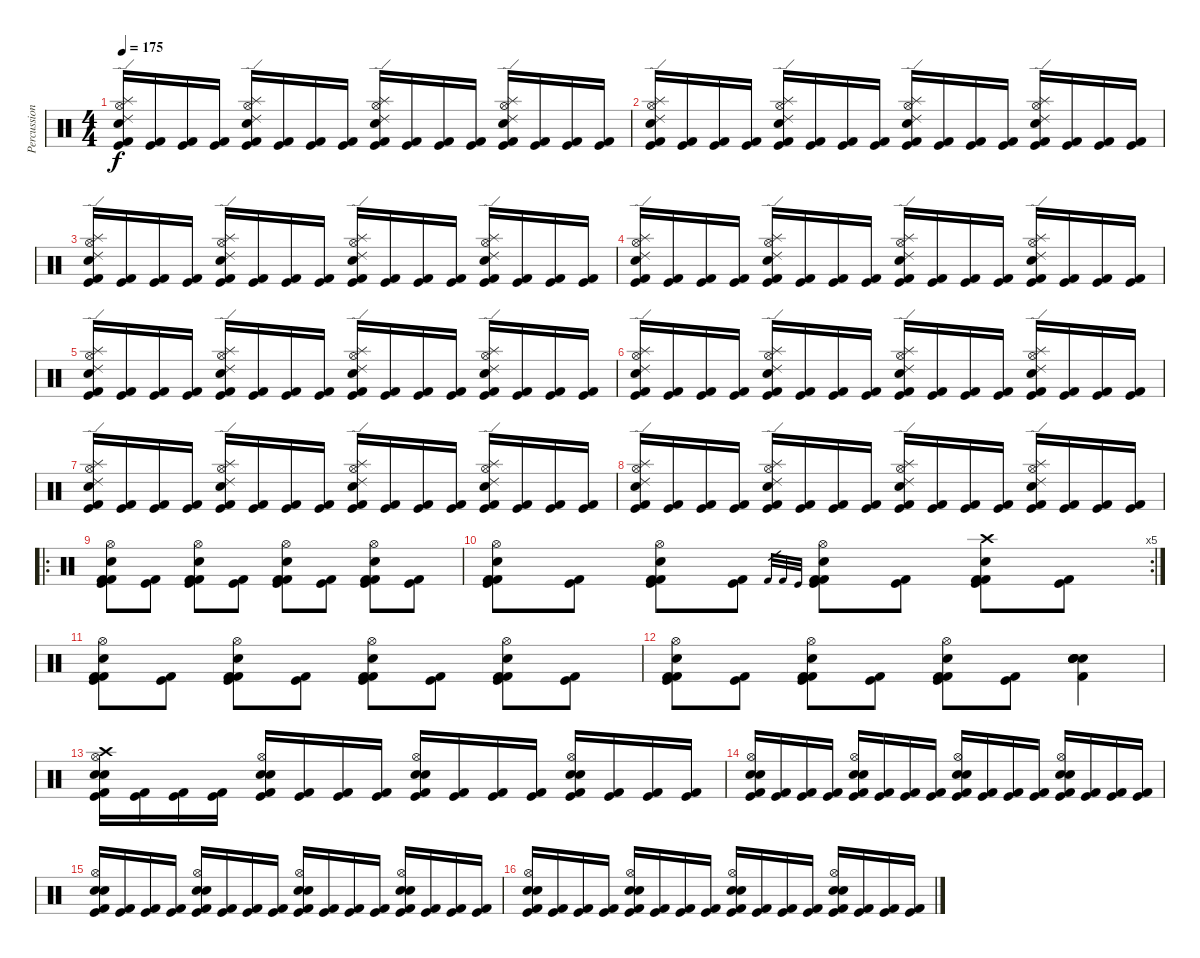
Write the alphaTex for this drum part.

\track ("Percussion" "Percussion") {instrument percussion}
\staff {score}
\articulation defaults
\ts (4 4)
\tempo 175
\clef neutral
\ks c
("Ride (edge) 2" "Splash (hit)" "Electric Snare (hit)" "Hi-Hat (open)" "Kick (hit) 2" "Kick (hit)").16{dy f} ("Kick (hit) 2" "Kick (hit)").16 ("Kick (hit) 2" "Kick (hit)").16 ("Kick (hit) 2" "Kick (hit)").16 ("Ride (edge) 2" "Splash (hit)" "Electric Snare (hit)" "Hi-Hat (open)" "Kick (hit) 2" "Kick (hit)").16 ("Kick (hit) 2" "Kick (hit)").16 ("Kick (hit) 2" "Kick (hit)").16 ("Kick (hit) 2" "Kick (hit)").16 ("Ride (edge) 2" "Splash (hit)" "Electric Snare (hit)" "Hi-Hat (open)" "Kick (hit) 2" "Kick (hit)").16 ("Kick (hit) 2" "Kick (hit)").16 ("Kick (hit) 2" "Kick (hit)").16 ("Kick (hit) 2" "Kick (hit)").16 ("Ride (edge) 2" "Splash (hit)" "Electric Snare (hit)" "Hi-Hat (open)" "Kick (hit) 2" "Kick (hit)").16 ("Kick (hit) 2" "Kick (hit)").16 ("Kick (hit) 2" "Kick (hit)").16 ("Kick (hit) 2" "Kick (hit)").16 |
("Ride (edge) 2" "Splash (hit)" "Electric Snare (hit)" "Hi-Hat (open)" "Kick (hit) 2" "Kick (hit)").16 ("Kick (hit) 2" "Kick (hit)").16 ("Kick (hit) 2" "Kick (hit)").16 ("Kick (hit) 2" "Kick (hit)").16 ("Ride (edge) 2" "Splash (hit)" "Electric Snare (hit)" "Hi-Hat (open)" "Kick (hit) 2" "Kick (hit)").16 ("Kick (hit) 2" "Kick (hit)").16 ("Kick (hit) 2" "Kick (hit)").16 ("Kick (hit) 2" "Kick (hit)").16 ("Ride (edge) 2" "Splash (hit)" "Electric Snare (hit)" "Hi-Hat (open)" "Kick (hit) 2" "Kick (hit)").16 ("Kick (hit) 2" "Kick (hit)").16 ("Kick (hit) 2" "Kick (hit)").16 ("Kick (hit) 2" "Kick (hit)").16 ("Ride (edge) 2" "Splash (hit)" "Electric Snare (hit)" "Hi-Hat (open)" "Kick (hit) 2" "Kick (hit)").16 ("Kick (hit) 2" "Kick (hit)").16 ("Kick (hit) 2" "Kick (hit)").16 ("Kick (hit) 2" "Kick (hit)").16 |
("Ride (edge) 2" "Splash (hit)" "Electric Snare (hit)" "Hi-Hat (open)" "Kick (hit) 2" "Kick (hit)").16 ("Kick (hit) 2" "Kick (hit)").16 ("Kick (hit) 2" "Kick (hit)").16 ("Kick (hit) 2" "Kick (hit)").16 ("Ride (edge) 2" "Splash (hit)" "Electric Snare (hit)" "Hi-Hat (open)" "Kick (hit) 2" "Kick (hit)").16 ("Kick (hit) 2" "Kick (hit)").16 ("Kick (hit) 2" "Kick (hit)").16 ("Kick (hit) 2" "Kick (hit)").16 ("Ride (edge) 2" "Splash (hit)" "Electric Snare (hit)" "Hi-Hat (open)" "Kick (hit) 2" "Kick (hit)").16 ("Kick (hit) 2" "Kick (hit)").16 ("Kick (hit) 2" "Kick (hit)").16 ("Kick (hit) 2" "Kick (hit)").16 ("Ride (edge) 2" "Splash (hit)" "Electric Snare (hit)" "Hi-Hat (open)" "Kick (hit) 2" "Kick (hit)").16 ("Kick (hit) 2" "Kick (hit)").16 ("Kick (hit) 2" "Kick (hit)").16 ("Kick (hit) 2" "Kick (hit)").16 |
("Ride (edge) 2" "Splash (hit)" "Electric Snare (hit)" "Hi-Hat (open)" "Kick (hit) 2" "Kick (hit)").16 ("Kick (hit) 2" "Kick (hit)").16 ("Kick (hit) 2" "Kick (hit)").16 ("Kick (hit) 2" "Kick (hit)").16 ("Ride (edge) 2" "Splash (hit)" "Electric Snare (hit)" "Hi-Hat (open)" "Kick (hit) 2" "Kick (hit)").16 ("Kick (hit) 2" "Kick (hit)").16 ("Kick (hit) 2" "Kick (hit)").16 ("Kick (hit) 2" "Kick (hit)").16 ("Ride (edge) 2" "Splash (hit)" "Electric Snare (hit)" "Hi-Hat (open)" "Kick (hit) 2" "Kick (hit)").16 ("Kick (hit) 2" "Kick (hit)").16 ("Kick (hit) 2" "Kick (hit)").16 ("Kick (hit) 2" "Kick (hit)").16 ("Ride (edge) 2" "Splash (hit)" "Electric Snare (hit)" "Hi-Hat (open)" "Kick (hit) 2" "Kick (hit)").16 ("Kick (hit) 2" "Kick (hit)").16 ("Kick (hit) 2" "Kick (hit)").16 ("Kick (hit) 2" "Kick (hit)").16 |
("Ride (edge) 2" "Splash (hit)" "Electric Snare (hit)" "Hi-Hat (open)" "Kick (hit) 2" "Kick (hit)").16 ("Kick (hit) 2" "Kick (hit)").16 ("Kick (hit) 2" "Kick (hit)").16 ("Kick (hit) 2" "Kick (hit)").16 ("Ride (edge) 2" "Splash (hit)" "Electric Snare (hit)" "Hi-Hat (open)" "Kick (hit) 2" "Kick (hit)").16 ("Kick (hit) 2" "Kick (hit)").16 ("Kick (hit) 2" "Kick (hit)").16 ("Kick (hit) 2" "Kick (hit)").16 ("Ride (edge) 2" "Splash (hit)" "Electric Snare (hit)" "Hi-Hat (open)" "Kick (hit) 2" "Kick (hit)").16 ("Kick (hit) 2" "Kick (hit)").16 ("Kick (hit) 2" "Kick (hit)").16 ("Kick (hit) 2" "Kick (hit)").16 ("Ride (edge) 2" "Splash (hit)" "Electric Snare (hit)" "Hi-Hat (open)" "Kick (hit) 2" "Kick (hit)").16 ("Kick (hit) 2" "Kick (hit)").16 ("Kick (hit) 2" "Kick (hit)").16 ("Kick (hit) 2" "Kick (hit)").16 |
("Ride (edge) 2" "Splash (hit)" "Electric Snare (hit)" "Hi-Hat (open)" "Kick (hit) 2" "Kick (hit)").16 ("Kick (hit) 2" "Kick (hit)").16 ("Kick (hit) 2" "Kick (hit)").16 ("Kick (hit) 2" "Kick (hit)").16 ("Ride (edge) 2" "Splash (hit)" "Electric Snare (hit)" "Hi-Hat (open)" "Kick (hit) 2" "Kick (hit)").16 ("Kick (hit) 2" "Kick (hit)").16 ("Kick (hit) 2" "Kick (hit)").16 ("Kick (hit) 2" "Kick (hit)").16 ("Ride (edge) 2" "Splash (hit)" "Electric Snare (hit)" "Hi-Hat (open)" "Kick (hit) 2" "Kick (hit)").16 ("Kick (hit) 2" "Kick (hit)").16 ("Kick (hit) 2" "Kick (hit)").16 ("Kick (hit) 2" "Kick (hit)").16 ("Ride (edge) 2" "Splash (hit)" "Electric Snare (hit)" "Hi-Hat (open)" "Kick (hit) 2" "Kick (hit)").16 ("Kick (hit) 2" "Kick (hit)").16 ("Kick (hit) 2" "Kick (hit)").16 ("Kick (hit) 2" "Kick (hit)").16 |
("Ride (edge) 2" "Splash (hit)" "Electric Snare (hit)" "Hi-Hat (open)" "Kick (hit) 2" "Kick (hit)").16 ("Kick (hit) 2" "Kick (hit)").16 ("Kick (hit) 2" "Kick (hit)").16 ("Kick (hit) 2" "Kick (hit)").16 ("Ride (edge) 2" "Splash (hit)" "Electric Snare (hit)" "Hi-Hat (open)" "Kick (hit) 2" "Kick (hit)").16 ("Kick (hit) 2" "Kick (hit)").16 ("Kick (hit) 2" "Kick (hit)").16 ("Kick (hit) 2" "Kick (hit)").16 ("Ride (edge) 2" "Splash (hit)" "Electric Snare (hit)" "Hi-Hat (open)" "Kick (hit) 2" "Kick (hit)").16 ("Kick (hit) 2" "Kick (hit)").16 ("Kick (hit) 2" "Kick (hit)").16 ("Kick (hit) 2" "Kick (hit)").16 ("Ride (edge) 2" "Splash (hit)" "Electric Snare (hit)" "Hi-Hat (open)" "Kick (hit) 2" "Kick (hit)").16 ("Kick (hit) 2" "Kick (hit)").16 ("Kick (hit) 2" "Kick (hit)").16 ("Kick (hit) 2" "Kick (hit)").16 |
("Ride (edge) 2" "Splash (hit)" "Electric Snare (hit)" "Hi-Hat (open)" "Kick (hit) 2" "Kick (hit)").16 ("Kick (hit) 2" "Kick (hit)").16 ("Kick (hit) 2" "Kick (hit)").16 ("Kick (hit) 2" "Kick (hit)").16 ("Ride (edge) 2" "Splash (hit)" "Electric Snare (hit)" "Hi-Hat (open)" "Kick (hit) 2" "Kick (hit)").16 ("Kick (hit) 2" "Kick (hit)").16 ("Kick (hit) 2" "Kick (hit)").16 ("Kick (hit) 2" "Kick (hit)").16 ("Ride (edge) 2" "Splash (hit)" "Electric Snare (hit)" "Hi-Hat (open)" "Kick (hit) 2" "Kick (hit)").16 ("Kick (hit) 2" "Kick (hit)").16 ("Kick (hit) 2" "Kick (hit)").16 ("Kick (hit) 2" "Kick (hit)").16 ("Ride (edge) 2" "Splash (hit)" "Electric Snare (hit)" "Hi-Hat (open)" "Kick (hit) 2" "Kick (hit)").16 ("Kick (hit) 2" "Kick (hit)").16 ("Kick (hit) 2" "Kick (hit)").16 ("Kick (hit) 2" "Kick (hit)").16 |
\ro
("Hi-Hat (open)" "Snare (hit) 2" "Kick (hit) 2" "Kick (hit) 2" "Kick (hit)").8 ("Kick (hit) 2" "Kick (hit)").8 ("Hi-Hat (open)" "Snare (hit) 2" "Kick (hit) 2" "Kick (hit) 2" "Kick (hit)").8 ("Kick (hit) 2" "Kick (hit)").8 ("Hi-Hat (open)" "Snare (hit) 2" "Kick (hit) 2" "Kick (hit) 2" "Kick (hit)").8 ("Kick (hit) 2" "Kick (hit)").8 ("Hi-Hat (open)" "Snare (hit) 2" "Kick (hit) 2" "Kick (hit) 2" "Kick (hit)").8 ("Kick (hit) 2" "Kick (hit)").8 |
\rc 5
("Hi-Hat (open)" "Snare (hit) 2" "Kick (hit) 2" "Kick (hit) 2" "Kick (hit)").8 ("Kick (hit) 2" "Kick (hit)").8 ("Hi-Hat (open)" "Snare (hit) 2" "Kick (hit) 2" "Kick (hit) 2" "Kick (hit)").8 ("Kick (hit) 2" "Kick (hit)").8 "Kick (hit) 2".32{gr} "Kick (hit) 2".32{gr} "Kick (hit)".32{gr} ("Hi-Hat (open)" "Snare (hit) 2" "Kick (hit) 2" "Kick (hit) 2" "Kick (hit)").8 ("Kick (hit) 2" "Kick (hit)").8 ("Crash high (hit)" "Snare (hit) 2" "Kick (hit) 2" "Kick (hit) 2" "Kick (hit)").8 ("Kick (hit) 2" "Kick (hit)").8 |
("Hi-Hat (open)" "Snare (hit) 2" "Kick (hit) 2" "Kick (hit) 2" "Kick (hit)").8 ("Kick (hit) 2" "Kick (hit)").8 ("Hi-Hat (open)" "Snare (hit) 2" "Kick (hit) 2" "Kick (hit) 2" "Kick (hit)").8 ("Kick (hit) 2" "Kick (hit)").8 ("Hi-Hat (open)" "Snare (hit) 2" "Kick (hit) 2" "Kick (hit) 2" "Kick (hit)").8 ("Kick (hit) 2" "Kick (hit)").8 ("Hi-Hat (open)" "Snare (hit) 2" "Kick (hit) 2" "Kick (hit) 2" "Kick (hit)").8 ("Kick (hit) 2" "Kick (hit)").8 |
("Hi-Hat (open)" "Snare (hit) 2" "Kick (hit) 2" "Kick (hit) 2" "Kick (hit)").8 ("Kick (hit) 2" "Kick (hit)").8 ("Hi-Hat (open)" "Snare (hit) 2" "Kick (hit) 2" "Kick (hit) 2" "Kick (hit)").8 ("Kick (hit) 2" "Kick (hit)").8 ("Hi-Hat (open)" "Snare (hit) 2" "Kick (hit) 2" "Kick (hit) 2" "Kick (hit)").8 ("Kick (hit) 2" "Kick (hit)").8 ("Kick (hit) 2" "Electric Snare (hit)" "Electric Snare (hit)" "Electric Snare (hit)" "Snare (hit) 2").4 |
("Crash high (hit)" "Hi-Hat (open)" "Electric Snare (hit)" "Snare (hit) 2" "Kick (hit) 2" "Kick (hit)").16 ("Kick (hit) 2" "Kick (hit)").16 ("Kick (hit) 2" "Kick (hit)").16 ("Kick (hit) 2" "Kick (hit)").16 ("Hi-Hat (open)" "Electric Snare (hit)" "Snare (hit) 2" "Kick (hit) 2" "Kick (hit)").16 ("Kick (hit) 2" "Kick (hit)").16 ("Kick (hit) 2" "Kick (hit)").16 ("Kick (hit) 2" "Kick (hit)").16 ("Hi-Hat (open)" "Electric Snare (hit)" "Snare (hit) 2" "Kick (hit) 2" "Kick (hit)").16 ("Kick (hit) 2" "Kick (hit)").16 ("Kick (hit) 2" "Kick (hit)").16 ("Kick (hit) 2" "Kick (hit)").16 ("Hi-Hat (open)" "Electric Snare (hit)" "Snare (hit) 2" "Kick (hit) 2" "Kick (hit)").16 ("Kick (hit) 2" "Kick (hit)").16 ("Kick (hit) 2" "Kick (hit)").16 ("Kick (hit) 2" "Kick (hit)").16 |
("Hi-Hat (open)" "Electric Snare (hit)" "Snare (hit) 2" "Kick (hit) 2" "Kick (hit)").16 ("Kick (hit) 2" "Kick (hit)").16 ("Kick (hit) 2" "Kick (hit)").16 ("Kick (hit) 2" "Kick (hit)").16 ("Hi-Hat (open)" "Electric Snare (hit)" "Snare (hit) 2" "Kick (hit) 2" "Kick (hit)").16 ("Kick (hit) 2" "Kick (hit)").16 ("Kick (hit) 2" "Kick (hit)").16 ("Kick (hit) 2" "Kick (hit)").16 ("Hi-Hat (open)" "Electric Snare (hit)" "Snare (hit) 2" "Kick (hit) 2" "Kick (hit)").16 ("Kick (hit) 2" "Kick (hit)").16 ("Kick (hit) 2" "Kick (hit)").16 ("Kick (hit) 2" "Kick (hit)").16 ("Hi-Hat (open)" "Electric Snare (hit)" "Snare (hit) 2" "Kick (hit) 2" "Kick (hit)").16 ("Kick (hit) 2" "Kick (hit)").16 ("Kick (hit) 2" "Kick (hit)").16 ("Kick (hit) 2" "Kick (hit)").16 |
("Hi-Hat (open)" "Electric Snare (hit)" "Snare (hit) 2" "Kick (hit) 2" "Kick (hit)").16 ("Kick (hit) 2" "Kick (hit)").16 ("Kick (hit) 2" "Kick (hit)").16 ("Kick (hit) 2" "Kick (hit)").16 ("Hi-Hat (open)" "Electric Snare (hit)" "Snare (hit) 2" "Kick (hit) 2" "Kick (hit)").16 ("Kick (hit) 2" "Kick (hit)").16 ("Kick (hit) 2" "Kick (hit)").16 ("Kick (hit) 2" "Kick (hit)").16 ("Hi-Hat (open)" "Electric Snare (hit)" "Snare (hit) 2" "Kick (hit) 2" "Kick (hit)").16 ("Kick (hit) 2" "Kick (hit)").16 ("Kick (hit) 2" "Kick (hit)").16 ("Kick (hit) 2" "Kick (hit)").16 ("Hi-Hat (open)" "Electric Snare (hit)" "Snare (hit) 2" "Kick (hit) 2" "Kick (hit)").16 ("Kick (hit) 2" "Kick (hit)").16 ("Kick (hit) 2" "Kick (hit)").16 ("Kick (hit) 2" "Kick (hit)").16 |
("Hi-Hat (open)" "Electric Snare (hit)" "Snare (hit) 2" "Kick (hit) 2" "Kick (hit)").16 ("Kick (hit) 2" "Kick (hit)").16 ("Kick (hit) 2" "Kick (hit)").16 ("Kick (hit) 2" "Kick (hit)").16 ("Hi-Hat (open)" "Electric Snare (hit)" "Snare (hit) 2" "Kick (hit) 2" "Kick (hit)").16 ("Kick (hit) 2" "Kick (hit)").16 ("Kick (hit) 2" "Kick (hit)").16 ("Kick (hit) 2" "Kick (hit)").16 ("Hi-Hat (open)" "Electric Snare (hit)" "Snare (hit) 2" "Kick (hit) 2" "Kick (hit)").16 ("Kick (hit) 2" "Kick (hit)").16 ("Kick (hit) 2" "Kick (hit)").16 ("Kick (hit) 2" "Kick (hit)").16 ("Hi-Hat (open)" "Electric Snare (hit)" "Snare (hit) 2" "Kick (hit) 2" "Kick (hit)").16 ("Kick (hit) 2" "Kick (hit)").16 ("Kick (hit) 2" "Kick (hit)").16 ("Kick (hit) 2" "Kick (hit)").16
